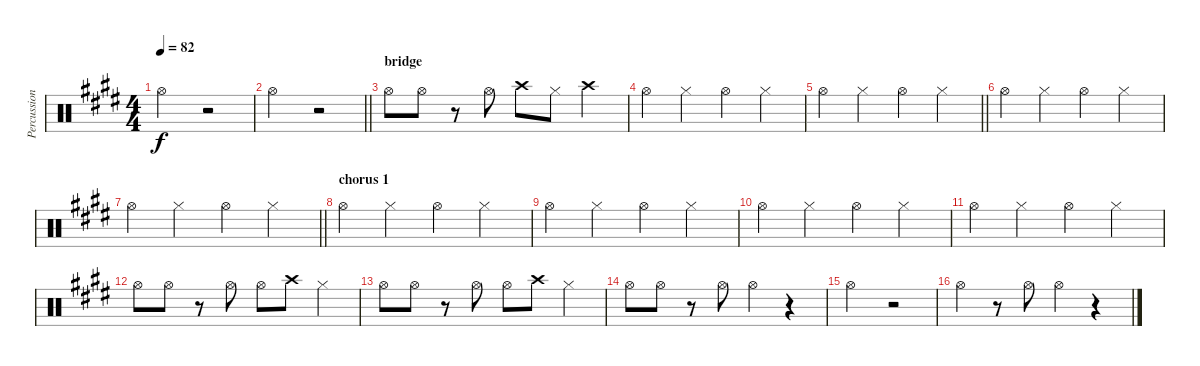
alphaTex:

\track ("Percussion" "Percussion") {instrument percussion}
\staff {score}
\articulation defaults
\ts (4 4)
\tempo 82
\clef neutral
\ks e "Hi-Hat (open)".2{dy f}
r.2 |
\barLineRight lightlight "Hi-Hat (open)".2
r.2 |
\section ("" "bridge")
"Hi-Hat (open)".8 "Hi-Hat (open)".8 r.8 "Hi-Hat (open)".8 "Crash high (hit)".8 "Hi-Hat (closed)".8 "Crash high (hit)".4 |
"Hi-Hat (open)".4 "Hi-Hat (closed)".4 "Hi-Hat (open)".4 "Hi-Hat (closed)".4 |
\barLineRight lightlight "Hi-Hat (open)".4 "Hi-Hat (closed)".4 "Hi-Hat (open)".4 "Hi-Hat (closed)".4
|
"Hi-Hat (open)".4 "Hi-Hat (closed)".4 "Hi-Hat (open)".4 "Hi-Hat (closed)".4 |
\barLineRight lightlight "Hi-Hat (open)".4 "Hi-Hat (closed)".4 "Hi-Hat (open)".4 "Hi-Hat (closed)".4
|
\section ("" "chorus 1")
"Hi-Hat (open)".4 "Hi-Hat (closed)".4 "Hi-Hat (open)".4 "Hi-Hat (closed)".4 |
"Hi-Hat (open)".4 "Hi-Hat (closed)".4 "Hi-Hat (open)".4 "Hi-Hat (closed)".4 |
"Hi-Hat (open)".4 "Hi-Hat (closed)".4 "Hi-Hat (open)".4 "Hi-Hat (closed)".4 |
"Hi-Hat (open)".4 "Hi-Hat (closed)".4 "Hi-Hat (open)".4 "Hi-Hat (closed)".4 |
"Hi-Hat (open)".8 "Hi-Hat (open)".8 r.8 "Hi-Hat (open)".8 "Hi-Hat (open)".8 "Crash high (hit)".8 "Hi-Hat (closed)".4 |
"Hi-Hat (open)".8 "Hi-Hat (open)".8 r.8 "Hi-Hat (open)".8 "Hi-Hat (open)".8 "Crash high (hit)".8 "Hi-Hat (closed)".4 |
"Hi-Hat (open)".8 "Hi-Hat (open)".8 r.8 "Hi-Hat (open)".8 "Hi-Hat (open)".4 r.4 |
"Hi-Hat (open)".2 r.2 |
"Hi-Hat (open)".4 r.8 "Hi-Hat (open)".8 "Hi-Hat (open)".4 r.4
